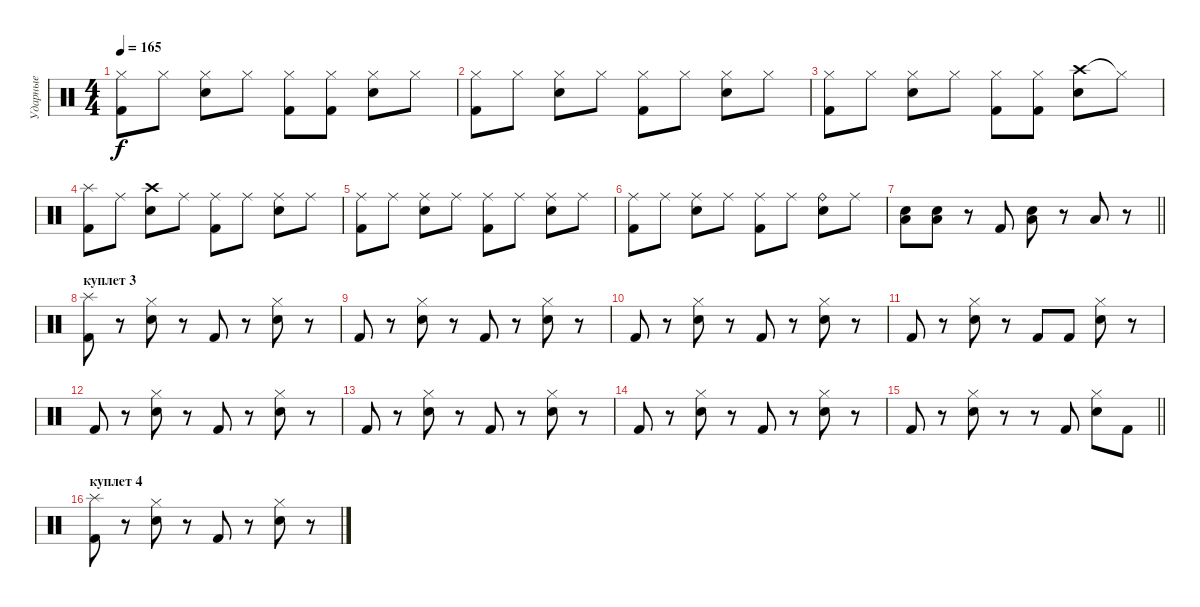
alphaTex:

\track ("Ударные" "Ударные") {instrument percussion}
\staff {score}
\articulation defaults
\ts (4 4)
\tempo 165
\clef neutral
\ks c
("Hi-Hat (closed)" "Kick (hit) 2").8{dy f} "Hi-Hat (closed)".8 ("Hi-Hat (closed)" "Snare (hit) 2").8 "Hi-Hat (closed)".8 ("Hi-Hat (closed)" "Kick (hit) 2").8 ("Hi-Hat (closed)" "Kick (hit) 2").8 ("Hi-Hat (closed)" "Snare (hit) 2").8 "Hi-Hat (closed)".8 |
("Hi-Hat (closed)" "Kick (hit) 2").8 "Hi-Hat (closed)".8 ("Hi-Hat (closed)" "Snare (hit) 2").8 "Hi-Hat (closed)".8 ("Hi-Hat (closed)" "Kick (hit) 2").8 "Hi-Hat (closed)".8 ("Hi-Hat (closed)" "Snare (hit) 2").8 "Hi-Hat (closed)".8 |
("Hi-Hat (closed)" "Kick (hit) 2").8 "Hi-Hat (closed)".8 ("Hi-Hat (closed)" "Snare (hit) 2").8 "Hi-Hat (closed)".8 ("Hi-Hat (closed)" "Kick (hit) 2").8 ("Hi-Hat (closed)" "Kick (hit) 2").8 ("Crash high (hit)" "Snare (hit) 2").8 "Hi-Hat (closed)"{t}.8 |
("Splash (hit)" "Kick (hit) 2").8 "Ride (middle)".8 ("Crash high (hit)" "Snare (hit) 2").8 "Ride (middle)".8 ("Ride (middle)" "Kick (hit) 2").8 "Ride (middle)".8 ("Ride (middle)" "Snare (hit) 2").8 "Ride (middle)".8 |
("Ride (middle)" "Kick (hit) 2").8 "Ride (middle)".8 ("Ride (middle)" "Snare (hit) 2").8 "Ride (middle)".8 ("Ride (middle)" "Kick (hit) 2").8 "Ride (middle)".8 ("Ride (middle)" "Snare (hit) 2").8 "Ride (middle)".8 |
("Ride (middle)" "Kick (hit) 2").8 "Ride (middle)".8 ("Ride (middle)" "Snare (hit) 2").8 "Ride (middle)".8 ("Ride (middle)" "Kick (hit) 2").8 "Ride (middle)".8 ("Ride (bell)" "Snare (hit) 2").8 "Ride (middle)".8 |
\barLineRight lightlight
("Low Floor Tom (hit)" "Snare (hit) 2").8 ("Low Tom (hit)" "Snare (hit) 2").8 r.8 "Kick (hit) 2".8 ("Low Floor Tom (hit)" "Snare (hit) 2").8 r.8 "Low Tom (hit)".8 r.8 |
\section ("" "куплет 3")
("Splash (hit)" "Kick (hit) 2").8 r.8 ("Hi-Hat (closed)" "Snare (hit) 2").8 r.8 "Kick (hit) 2".8 r.8 ("Hi-Hat (closed)" "Snare (hit) 2").8 r.8 |
"Kick (hit) 2".8 r.8 ("Hi-Hat (closed)" "Snare (hit) 2").8 r.8 "Kick (hit) 2".8 r.8 ("Hi-Hat (closed)" "Snare (hit) 2").8 r.8 |
"Kick (hit) 2".8 r.8 ("Hi-Hat (closed)" "Snare (hit) 2").8 r.8 "Kick (hit) 2".8 r.8 ("Hi-Hat (closed)" "Snare (hit) 2").8 r.8 |
"Kick (hit) 2".8 r.8 ("Hi-Hat (closed)" "Snare (hit) 2").8 r.8 "Kick (hit) 2".8 "Kick (hit) 2".8 ("Hi-Hat (closed)" "Snare (hit) 2").8 r.8 |
"Kick (hit) 2".8 r.8 ("Hi-Hat (closed)" "Snare (hit) 2").8 r.8 "Kick (hit) 2".8 r.8 ("Hi-Hat (closed)" "Snare (hit) 2").8 r.8 |
"Kick (hit) 2".8 r.8 ("Hi-Hat (closed)" "Snare (hit) 2").8 r.8 "Kick (hit) 2".8 r.8 ("Hi-Hat (closed)" "Snare (hit) 2").8 r.8 |
"Kick (hit) 2".8 r.8 ("Hi-Hat (closed)" "Snare (hit) 2").8 r.8 "Kick (hit) 2".8 r.8 ("Hi-Hat (closed)" "Snare (hit) 2").8 r.8 |
\barLineRight lightlight "Kick (hit) 2".8
r.8 ("Hi-Hat (closed)" "Snare (hit) 2").8 r.8 r.8 "Kick (hit) 2".8 ("Hi-Hat (closed)" "Snare (hit) 2").8 "Kick (hit) 2".8 |
\section ("" "куплет 4")
("Splash (hit)" "Kick (hit) 2").8 r.8 ("Hi-Hat (closed)" "Snare (hit) 2").8 r.8 "Kick (hit) 2".8 r.8 ("Hi-Hat (closed)" "Snare (hit) 2").8 r.8
